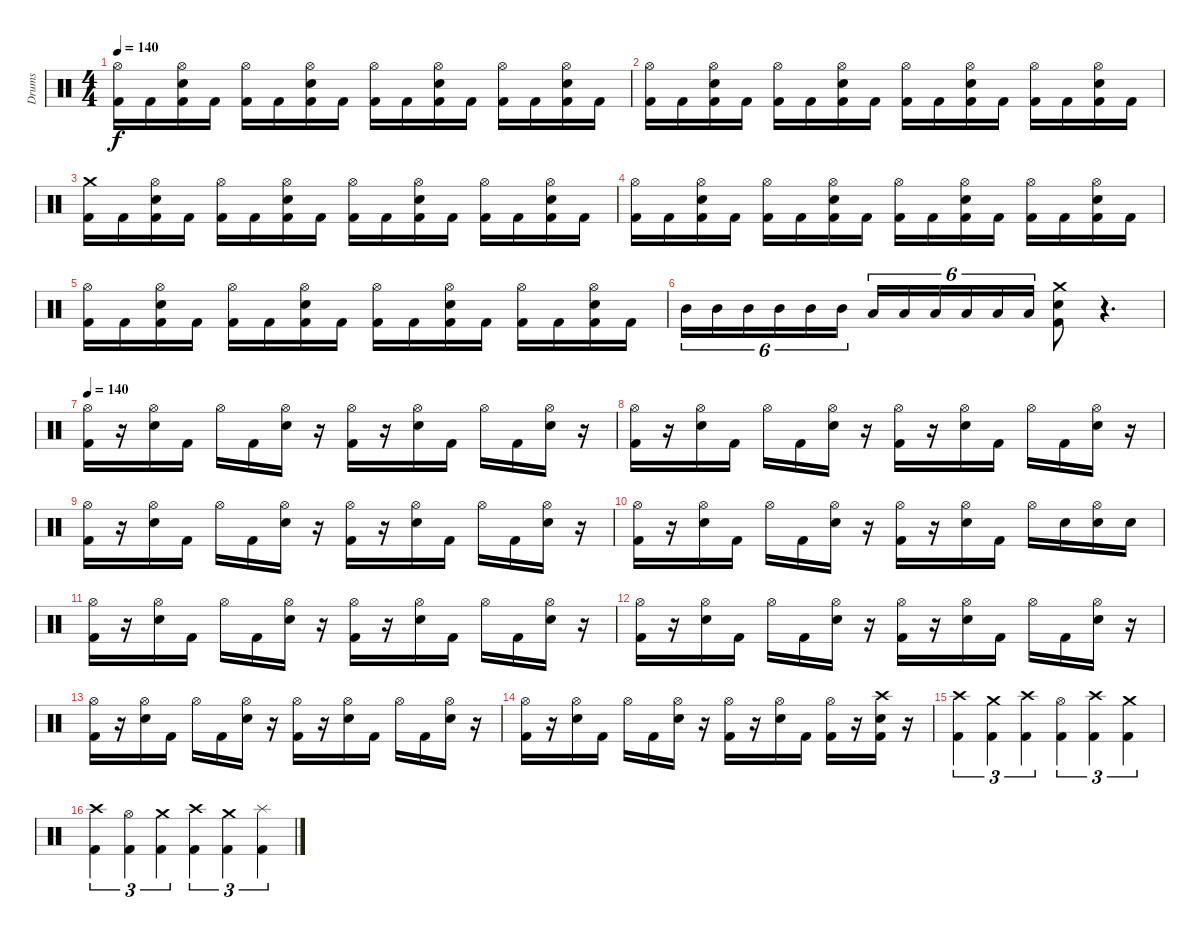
\track ("Drums" "Drums") {instrument percussion}
\staff {score}
\articulation defaults
\ts (4 4)
\tempo 140
\clef neutral
\ks c
("Hi-Hat (open)" "Kick (hit) 2").16{dy f} "Kick (hit) 2".16 ("Electric Snare (hit)" "Kick (hit) 2" "Hi-Hat (open)").16 "Kick (hit) 2".16 ("Kick (hit) 2" "Hi-Hat (open)").16 "Kick (hit) 2".16 ("Electric Snare (hit)" "Hi-Hat (open)" "Kick (hit) 2").16 "Kick (hit) 2".16 ("Hi-Hat (open)" "Kick (hit) 2").16 "Kick (hit) 2".16 ("Electric Snare (hit)" "Kick (hit) 2" "Hi-Hat (open)").16 "Kick (hit) 2".16 ("Hi-Hat (open)" "Kick (hit) 2").16 "Kick (hit) 2".16 ("Hi-Hat (open)" "Electric Snare (hit)" "Kick (hit) 2").16 "Kick (hit) 2".16 |
("Kick (hit) 2" "Hi-Hat (open)").16 "Kick (hit) 2".16 ("Electric Snare (hit)" "Hi-Hat (open)" "Kick (hit) 2").16 "Kick (hit) 2".16 ("Hi-Hat (open)" "Kick (hit) 2").16 "Kick (hit) 2".16 ("Electric Snare (hit)" "Kick (hit) 2" "Hi-Hat (open)").16 "Kick (hit) 2".16 ("Hi-Hat (open)" "Kick (hit) 2").16 "Kick (hit) 2".16 ("Kick (hit) 2" "Hi-Hat (open)" "Electric Snare (hit)").16 "Kick (hit) 2".16 ("Kick (hit) 2" "Hi-Hat (open)").16 "Kick (hit) 2".16 ("Hi-Hat (open)" "Kick (hit) 2" "Electric Snare (hit)").16 "Kick (hit) 2".16 |
("Kick (hit) 2" "Crash medium (hit)").16 "Kick (hit) 2".16 ("Hi-Hat (open)" "Kick (hit) 2" "Electric Snare (hit)").16 "Kick (hit) 2".16 ("Kick (hit) 2" "Hi-Hat (open)").16 "Kick (hit) 2".16 ("Hi-Hat (open)" "Electric Snare (hit)" "Kick (hit) 2").16 "Kick (hit) 2".16 ("Kick (hit) 2" "Hi-Hat (open)").16 "Kick (hit) 2".16 ("Hi-Hat (open)" "Kick (hit) 2" "Electric Snare (hit)").16 "Kick (hit) 2".16 ("Kick (hit) 2" "Hi-Hat (open)").16 "Kick (hit) 2".16 ("Hi-Hat (open)" "Kick (hit) 2" "Electric Snare (hit)").16 "Kick (hit) 2".16 |
("Kick (hit) 2" "Hi-Hat (open)").16 "Kick (hit) 2".16 ("Hi-Hat (open)" "Kick (hit) 2" "Electric Snare (hit)").16 "Kick (hit) 2".16 ("Hi-Hat (open)" "Kick (hit) 2").16 "Kick (hit) 2".16 ("Electric Snare (hit)" "Kick (hit) 2" "Hi-Hat (open)").16 "Kick (hit) 2".16 ("Hi-Hat (open)" "Kick (hit) 2").16 "Kick (hit) 2".16 ("Hi-Hat (open)" "Kick (hit) 2" "Electric Snare (hit)").16 "Kick (hit) 2".16 ("Kick (hit) 2" "Hi-Hat (open)").16 "Kick (hit) 2".16 ("Hi-Hat (open)" "Electric Snare (hit)" "Kick (hit) 2").16 "Kick (hit) 2".16 |
("Hi-Hat (open)" "Kick (hit) 2").16 "Kick (hit) 2".16 ("Electric Snare (hit)" "Kick (hit) 2" "Hi-Hat (open)").16 "Kick (hit) 2".16 ("Hi-Hat (open)" "Kick (hit) 2").16 "Kick (hit) 2".16 ("Hi-Hat (open)" "Kick (hit) 2" "Electric Snare (hit)").16 "Kick (hit) 2".16 ("Kick (hit) 2" "Hi-Hat (open)").16 "Kick (hit) 2".16 ("Hi-Hat (open)" "Kick (hit) 2" "Electric Snare (hit)").16 "Kick (hit) 2".16 ("Kick (hit) 2" "Hi-Hat (open)").16 "Kick (hit) 2".16 ("Electric Snare (hit)" "Kick (hit) 2" "Hi-Hat (open)").16 "Kick (hit) 2".16 |
"Mid Tom (hit)".16{tu (6 4)} "Mid Tom (hit)".16{tu (6 4)} "Mid Tom (hit)".16{tu (6 4)} "Mid Tom (hit)".16{tu (6 4)} "Mid Tom (hit)".16{tu (6 4)} "Mid Tom (hit)".16{tu (6 4)} "Low Tom (hit)".16{tu (6 4)} "Low Tom (hit)".16{tu (6 4)} "Low Tom (hit)".16{tu (6 4)} "Low Tom (hit)".16{tu (6 4)} "Low Tom (hit)".16{tu (6 4)} "Low Tom (hit)".16{tu (6 4)} ("Crash medium (hit)" "Electric Snare (hit)" "Kick (hit) 2").8 r.4{d} |
\tempo 140
("Kick (hit) 2" "Hi-Hat (open)").16 r.16 ("Electric Snare (hit)" "Hi-Hat (open)").16 "Kick (hit) 2".16 "Hi-Hat (open)".16 "Kick (hit) 2".16 ("Electric Snare (hit)" "Hi-Hat (open)").16 r.16 ("Kick (hit) 2" "Hi-Hat (open)").16 r.16 ("Electric Snare (hit)" "Hi-Hat (open)").16 "Kick (hit) 2".16 "Hi-Hat (open)".16 "Kick (hit) 2".16 ("Hi-Hat (open)" "Electric Snare (hit)").16 r.16 |
("Kick (hit) 2" "Hi-Hat (open)").16 r.16 ("Hi-Hat (open)" "Electric Snare (hit)").16 "Kick (hit) 2".16 "Hi-Hat (open)".16 "Kick (hit) 2".16 ("Electric Snare (hit)" "Hi-Hat (open)").16 r.16 ("Kick (hit) 2" "Hi-Hat (open)").16 r.16 ("Electric Snare (hit)" "Hi-Hat (open)").16 "Kick (hit) 2".16 "Hi-Hat (open)".16 "Kick (hit) 2".16 ("Electric Snare (hit)" "Hi-Hat (open)").16 r.16 |
("Hi-Hat (open)" "Kick (hit) 2").16 r.16 ("Hi-Hat (open)" "Electric Snare (hit)").16 "Kick (hit) 2".16 "Hi-Hat (open)".16 "Kick (hit) 2".16 ("Hi-Hat (open)" "Electric Snare (hit)").16 r.16 ("Kick (hit) 2" "Hi-Hat (open)").16 r.16 ("Hi-Hat (open)" "Electric Snare (hit)").16 "Kick (hit) 2".16 "Hi-Hat (open)".16 "Kick (hit) 2".16 ("Hi-Hat (open)" "Electric Snare (hit)").16 r.16 |
("Hi-Hat (open)" "Kick (hit) 2").16 r.16 ("Electric Snare (hit)" "Hi-Hat (open)").16 "Kick (hit) 2".16 "Hi-Hat (open)".16 "Kick (hit) 2".16 ("Hi-Hat (open)" "Electric Snare (hit)").16 r.16 ("Kick (hit) 2" "Hi-Hat (open)").16 r.16 ("Electric Snare (hit)" "Hi-Hat (open)").16 "Kick (hit) 2".16 "Hi-Hat (open)".16 "Electric Snare (hit)".16 ("Electric Snare (hit)" "Hi-Hat (open)").16 "Electric Snare (hit)".16 |
("Kick (hit) 2" "Hi-Hat (open)").16 r.16 ("Hi-Hat (open)" "Electric Snare (hit)").16 "Kick (hit) 2".16 "Hi-Hat (open)".16 "Kick (hit) 2".16 ("Hi-Hat (open)" "Electric Snare (hit)").16 r.16 ("Hi-Hat (open)" "Kick (hit) 2").16 r.16 ("Hi-Hat (open)" "Electric Snare (hit)").16 "Kick (hit) 2".16 "Hi-Hat (open)".16 "Kick (hit) 2".16 ("Electric Snare (hit)" "Hi-Hat (open)").16 r.16 |
("Hi-Hat (open)" "Kick (hit) 2").16 r.16 ("Hi-Hat (open)" "Electric Snare (hit)").16 "Kick (hit) 2".16 "Hi-Hat (open)".16 "Kick (hit) 2".16 ("Hi-Hat (open)" "Electric Snare (hit)").16 r.16 ("Kick (hit) 2" "Hi-Hat (open)").16 r.16 ("Electric Snare (hit)" "Hi-Hat (open)").16 "Kick (hit) 2".16 "Hi-Hat (open)".16 "Kick (hit) 2".16 ("Hi-Hat (open)" "Electric Snare (hit)").16 r.16 |
("Hi-Hat (open)" "Kick (hit) 2").16 r.16 ("Electric Snare (hit)" "Hi-Hat (open)").16 "Kick (hit) 2".16 "Hi-Hat (open)".16 "Kick (hit) 2".16 ("Hi-Hat (open)" "Electric Snare (hit)").16 r.16 ("Kick (hit) 2" "Hi-Hat (open)").16 r.16 ("Electric Snare (hit)" "Hi-Hat (open)").16 "Kick (hit) 2".16 "Hi-Hat (open)".16 "Kick (hit) 2".16 ("Electric Snare (hit)" "Hi-Hat (open)").16 r.16 |
("Hi-Hat (open)" "Kick (hit) 2").16 r.16 ("Hi-Hat (open)" "Electric Snare (hit)").16 "Kick (hit) 2".16 "Hi-Hat (open)".16 "Kick (hit) 2".16 ("Electric Snare (hit)" "Hi-Hat (open)").16 r.16 ("Kick (hit) 2" "Hi-Hat (open)").16 r.16 ("Electric Snare (hit)" "Hi-Hat (open)").16 "Kick (hit) 2".16 ("Kick (hit) 2" "Hi-Hat (open)").16 r.16 ("Kick (hit) 2" "Electric Snare (hit)" "Crash high (hit)").16 r.16 |
("Crash high (hit)" "Kick (hit) 2").4{tu (3 2)} ("Crash medium (hit)" "Kick (hit) 2").4{tu (3 2)} ("Crash high (hit)" "Kick (hit) 2").4{tu (3 2)} ("Hi-Hat (open)" "Kick (hit) 2").4{tu (3 2)} ("Crash high (hit)" "Kick (hit) 2").4{tu (3 2)} ("Crash medium (hit)" "Kick (hit) 2").4{tu (3 2)} |
("Crash high (hit)" "Kick (hit) 2").4{tu (3 2)} ("Hi-Hat (open)" "Kick (hit) 2").4{tu (3 2)} ("Crash medium (hit)" "Kick (hit) 2").4{tu (3 2)} ("Crash high (hit)" "Kick (hit) 2").4{tu (3 2)} ("Crash medium (hit)" "Kick (hit) 2").4{tu (3 2)} ("Splash (hit)" "Kick (hit) 2").4{tu (3 2)}
